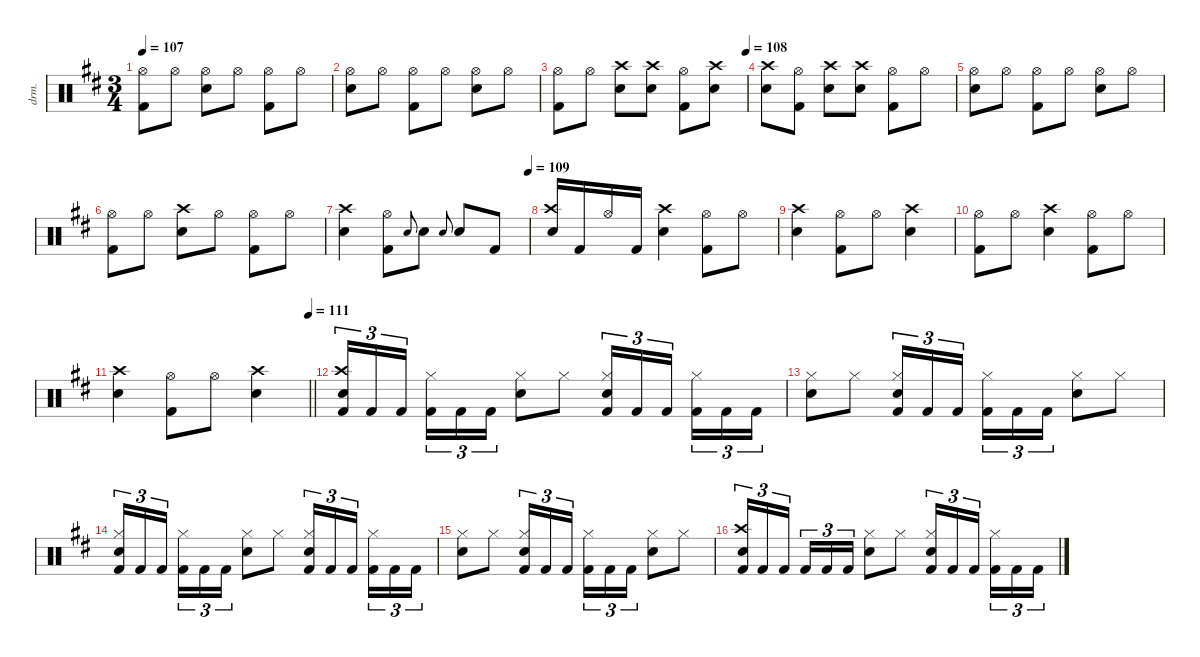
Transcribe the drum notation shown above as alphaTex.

\defaultSystemsLayout 4
\hideDynamics
\bracketExtendMode nobrackets
\otherSystemsTrackNameOrientation horizontal
\track ("Lars Ulrich" "drm.") {defaultSystemsLayout 4 instrument percussion}
\staff {score}
\articulation defaults
\ts (3 4)
\tempo 107
\clef neutral
\ks bminor
("Hi-Hat (open)"{acc forcenatural} "Kick (hit) 2"{acc forcenatural}).8{dy f beam Down} "Hi-Hat (open)"{acc forcenatural}.8{beam Down} ("Hi-Hat (open)"{acc forcenatural} "Snare (hit) 2"{acc forcenatural}).8{beam Down} "Hi-Hat (open)"{acc forcenatural}.8{beam Down} ("Hi-Hat (open)"{acc forcenatural} "Kick (hit) 2"{acc forcenatural}).8{beam Down} "Hi-Hat (open)"{acc forcenatural}.8{beam Down} |
("Hi-Hat (open)"{acc forcenatural} "Snare (hit) 2"{acc forcenatural}).8{beam Down} "Hi-Hat (open)"{acc forcenatural}.8{beam Down} ("Hi-Hat (open)"{acc forcenatural} "Kick (hit) 2"{acc forcenatural}).8{beam Down} "Hi-Hat (open)"{acc forcenatural}.8{beam Down} ("Hi-Hat (open)"{acc forcenatural} "Snare (hit) 2"{acc forcenatural}).8{beam Down} "Hi-Hat (open)"{acc forcenatural}.8{beam Down} |
\tempo (108 1)
("Hi-Hat (open)"{acc forcenatural} "Kick (hit) 2"{acc forcenatural}).8{beam Down} "Hi-Hat (open)"{acc forcenatural}.8{beam Down} ("Crash high (hit)"{acc forcenatural} "Snare (hit) 2"{acc forcenatural}).8{beam Down} ("Crash high (hit)"{acc forcenatural} "Snare (hit) 2"{acc forcenatural}).8{beam Down} ("Hi-Hat (open)"{acc forcenatural} "Kick (hit) 2"{acc forcenatural}).8{beam Down} ("Crash high (hit)"{acc forcenatural} "Snare (hit) 2"{acc forcenatural}).8{beam Down} |
("Crash high (hit)"{acc forcenatural} "Snare (hit) 2"{acc forcenatural}).8{beam Down} ("Hi-Hat (open)"{acc forcenatural} "Kick (hit) 2"{acc forcenatural}).8{beam Down} ("Crash high (hit)"{acc forcenatural} "Snare (hit) 2"{acc forcenatural}).8{beam Down} ("Crash high (hit)"{acc forcenatural} "Snare (hit) 2"{acc forcenatural}).8{beam Down} ("Hi-Hat (open)"{acc forcenatural} "Kick (hit) 2"{acc forcenatural}).8{beam Down} "Hi-Hat (open)"{acc forcenatural}.8{beam Down} |
("Hi-Hat (open)"{acc forcenatural} "Snare (hit) 2"{acc forcenatural}).8{beam Down} "Hi-Hat (open)"{acc forcenatural}.8{beam Down} ("Hi-Hat (open)"{acc forcenatural} "Kick (hit) 2"{acc forcenatural}).8{beam Down} "Hi-Hat (open)"{acc forcenatural}.8{beam Down} ("Hi-Hat (open)"{acc forcenatural} "Snare (hit) 2"{acc forcenatural}).8{beam Down} "Hi-Hat (open)"{acc forcenatural}.8{beam Down} |
("Hi-Hat (open)"{acc forcenatural} "Kick (hit) 2"{acc forcenatural}).8{beam Down} "Hi-Hat (open)"{acc forcenatural}.8{beam Down} ("Crash high (hit)"{acc forcenatural} "Snare (hit) 2"{acc forcenatural}).8{beam Down} "Hi-Hat (open)"{acc forcenatural}.8{beam Down} ("Hi-Hat (open)"{acc forcenatural} "Kick (hit) 2"{acc forcenatural}).8{beam Down} "Hi-Hat (open)"{acc forcenatural}.8{beam Down} |
\tempo (109 1)
("Crash high (hit)"{acc forcenatural} "Snare (hit) 2"{acc forcenatural}).4{beam Down} ("Hi-Hat (open)"{acc forcenatural} "Kick (hit) 2"{acc forcenatural}).8{beam Down} "Electric Snare (hit)"{acc forcenatural}.8{gr onbeat dy mp beam Up} "Snare (hit) 2"{acc forcenatural}.8{dy f beam Down} "Electric Snare (hit)"{acc forcenatural}.8{gr onbeat dy mp beam Up} "Snare (hit) 2"{acc forcenatural}.8{dy f beam Up} "Kick (hit) 2"{acc forcenatural}.8{dy fff beam Up} |
("Crash high (hit)"{acc forcenatural} "Snare (hit) 2"{acc forcenatural}).16{dy f beam Up} "Kick (hit) 2"{acc forcenatural}.16{dy fff beam Up} "Hi-Hat (open)"{acc forcenatural}.16{dy f beam Up} "Kick (hit) 2"{acc forcenatural}.16{dy fff beam Up} ("Crash high (hit)"{acc forcenatural} "Snare (hit) 2"{acc forcenatural}).4{dy f beam Down} ("Hi-Hat (open)"{acc forcenatural} "Kick (hit) 2"{acc forcenatural}).8{beam Down} "Hi-Hat (open)"{acc forcenatural}.8{beam Down} |
("Crash high (hit)"{acc forcenatural} "Snare (hit) 2"{acc forcenatural}).4{beam Down} ("Hi-Hat (open)"{acc forcenatural} "Kick (hit) 2"{acc forcenatural}).8{beam Down} "Hi-Hat (open)"{acc forcenatural}.8{beam Down} ("Crash high (hit)"{acc forcenatural} "Snare (hit) 2"{acc forcenatural}).4{beam Down} |
("Hi-Hat (open)"{acc forcenatural} "Kick (hit) 2"{acc forcenatural}).8{beam Down} "Hi-Hat (open)"{acc forcenatural}.8{beam Down} ("Crash high (hit)"{acc forcenatural} "Snare (hit) 2"{acc forcenatural}).4{beam Down} ("Hi-Hat (open)"{acc forcenatural} "Kick (hit) 2"{acc forcenatural}).8{beam Down} "Hi-Hat (open)"{acc forcenatural}.8{beam Down} |
\tempo (111 1)
\barLineRight lightlight
("Crash high (hit)"{acc forcenatural} "Snare (hit) 2"{acc forcenatural}).4{beam Down} ("Hi-Hat (open)"{acc forcenatural} "Kick (hit) 2"{acc forcenatural}).8{beam Down} "Hi-Hat (open)"{acc forcenatural}.8{beam Down} ("Crash high (hit)"{acc forcenatural} "Snare (hit) 2"{acc forcenatural}).4{beam Down} |
("Crash high (hit)"{acc forcenatural} "Snare (hit) 2"{acc forcenatural} "Kick (hit) 2"{acc forcenatural}).16{tu (3 2) beam Up} "Kick (hit) 2"{acc forcenatural}.16{tu (3 2) beam Up} "Kick (hit) 2"{acc forcenatural}.16{tu (3 2) beam Up} ("Hi-Hat (closed)"{acc forcenatural} "Kick (hit) 2"{acc forcenatural}).16{tu (3 2) beam Down} "Kick (hit) 2"{acc forcenatural}.16{tu (3 2) beam Down} "Kick (hit) 2"{acc forcenatural}.16{tu (3 2) beam Down} ("Hi-Hat (closed)"{acc forcenatural} "Snare (hit) 2"{acc forcenatural}).8{beam Down} "Hi-Hat (closed)"{acc forcenatural}.8{beam Down} ("Hi-Hat (closed)"{acc forcenatural} "Snare (hit) 2"{acc forcenatural} "Kick (hit) 2"{acc forcenatural}).16{tu (3 2) beam Up} "Kick (hit) 2"{acc forcenatural}.16{tu (3 2) beam Up} "Kick (hit) 2"{acc forcenatural}.16{tu (3 2) beam Up} ("Hi-Hat (closed)"{acc forcenatural} "Kick (hit) 2"{acc forcenatural}).16{tu (3 2) beam Down} "Kick (hit) 2"{acc forcenatural}.16{tu (3 2) beam Down} "Kick (hit) 2"{acc forcenatural}.16{tu (3 2) beam Down} |
("Hi-Hat (closed)"{acc forcenatural} "Snare (hit) 2"{acc forcenatural}).8{beam Down} "Hi-Hat (closed)"{acc forcenatural}.8{beam Down} ("Hi-Hat (closed)"{acc forcenatural} "Snare (hit) 2"{acc forcenatural} "Kick (hit) 2"{acc forcenatural}).16{tu (3 2) beam Up} "Kick (hit) 2"{acc forcenatural}.16{tu (3 2) beam Up} "Kick (hit) 2"{acc forcenatural}.16{tu (3 2) beam Up} ("Hi-Hat (closed)"{acc forcenatural} "Kick (hit) 2"{acc forcenatural}).16{tu (3 2) beam Down} "Kick (hit) 2"{acc forcenatural}.16{tu (3 2) beam Down} "Kick (hit) 2"{acc forcenatural}.16{tu (3 2) beam Down} ("Hi-Hat (closed)"{acc forcenatural} "Snare (hit) 2"{acc forcenatural}).8{beam Down} "Hi-Hat (closed)"{acc forcenatural}.8{beam Down} |
("Hi-Hat (closed)"{acc forcenatural} "Snare (hit) 2"{acc forcenatural} "Kick (hit) 2"{acc forcenatural}).16{tu (3 2) beam Up} "Kick (hit) 2"{acc forcenatural}.16{tu (3 2) beam Up} "Kick (hit) 2"{acc forcenatural}.16{tu (3 2) beam Up} ("Hi-Hat (closed)"{acc forcenatural} "Kick (hit) 2"{acc forcenatural}).16{tu (3 2) beam Down} "Kick (hit) 2"{acc forcenatural}.16{tu (3 2) beam Down} "Kick (hit) 2"{acc forcenatural}.16{tu (3 2) beam Down} ("Hi-Hat (closed)"{acc forcenatural} "Snare (hit) 2"{acc forcenatural}).8{beam Down} "Hi-Hat (closed)"{acc forcenatural}.8{beam Down} ("Hi-Hat (closed)"{acc forcenatural} "Snare (hit) 2"{acc forcenatural} "Kick (hit) 2"{acc forcenatural}).16{tu (3 2) beam Up} "Kick (hit) 2"{acc forcenatural}.16{tu (3 2) beam Up} "Kick (hit) 2"{acc forcenatural}.16{tu (3 2) beam Up} ("Hi-Hat (closed)"{acc forcenatural} "Kick (hit) 2"{acc forcenatural}).16{tu (3 2) beam Down} "Kick (hit) 2"{acc forcenatural}.16{tu (3 2) beam Down} "Kick (hit) 2"{acc forcenatural}.16{tu (3 2) beam Down} |
("Hi-Hat (closed)"{acc forcenatural} "Snare (hit) 2"{acc forcenatural}).8{beam Down} "Hi-Hat (closed)"{acc forcenatural}.8{beam Down} ("Hi-Hat (closed)"{acc forcenatural} "Snare (hit) 2"{acc forcenatural} "Kick (hit) 2"{acc forcenatural}).16{tu (3 2) beam Up} "Kick (hit) 2"{acc forcenatural}.16{tu (3 2) beam Up} "Kick (hit) 2"{acc forcenatural}.16{tu (3 2) beam Up} ("Hi-Hat (closed)"{acc forcenatural} "Kick (hit) 2"{acc forcenatural}).16{tu (3 2) beam Down} "Kick (hit) 2"{acc forcenatural}.16{tu (3 2) beam Down} "Kick (hit) 2"{acc forcenatural}.16{tu (3 2) beam Down} ("Hi-Hat (closed)"{acc forcenatural} "Snare (hit) 2"{acc forcenatural}).8{beam Down} "Hi-Hat (closed)"{acc forcenatural}.8{beam Down} |
("Crash high (hit)"{acc forcenatural} "Snare (hit) 2"{acc forcenatural} "Kick (hit) 2"{acc forcenatural}).16{tu (3 2) beam Up} "Kick (hit) 2"{acc forcenatural}.16{tu (3 2) beam Up} "Kick (hit) 2"{acc forcenatural}.16{tu (3 2) beam Up} "Kick (hit) 2"{acc forcenatural}.16{tu (3 2) beam Up} "Kick (hit) 2"{acc forcenatural}.16{tu (3 2) beam Up} "Kick (hit) 2"{acc forcenatural}.16{tu (3 2) beam Up} ("Hi-Hat (closed)"{acc forcenatural} "Snare (hit) 2"{acc forcenatural}).8{beam Down} "Hi-Hat (closed)"{acc forcenatural}.8{beam Down} ("Hi-Hat (closed)"{acc forcenatural} "Snare (hit) 2"{acc forcenatural} "Kick (hit) 2"{acc forcenatural}).16{tu (3 2) beam Up} "Kick (hit) 2"{acc forcenatural}.16{tu (3 2) beam Up} "Kick (hit) 2"{acc forcenatural}.16{tu (3 2) beam Up} ("Hi-Hat (closed)"{acc forcenatural} "Kick (hit) 2"{acc forcenatural}).16{tu (3 2) beam Down} "Kick (hit) 2"{acc forcenatural}.16{tu (3 2) beam Down} "Kick (hit) 2"{acc forcenatural}.16{tu (3 2) beam Down}
